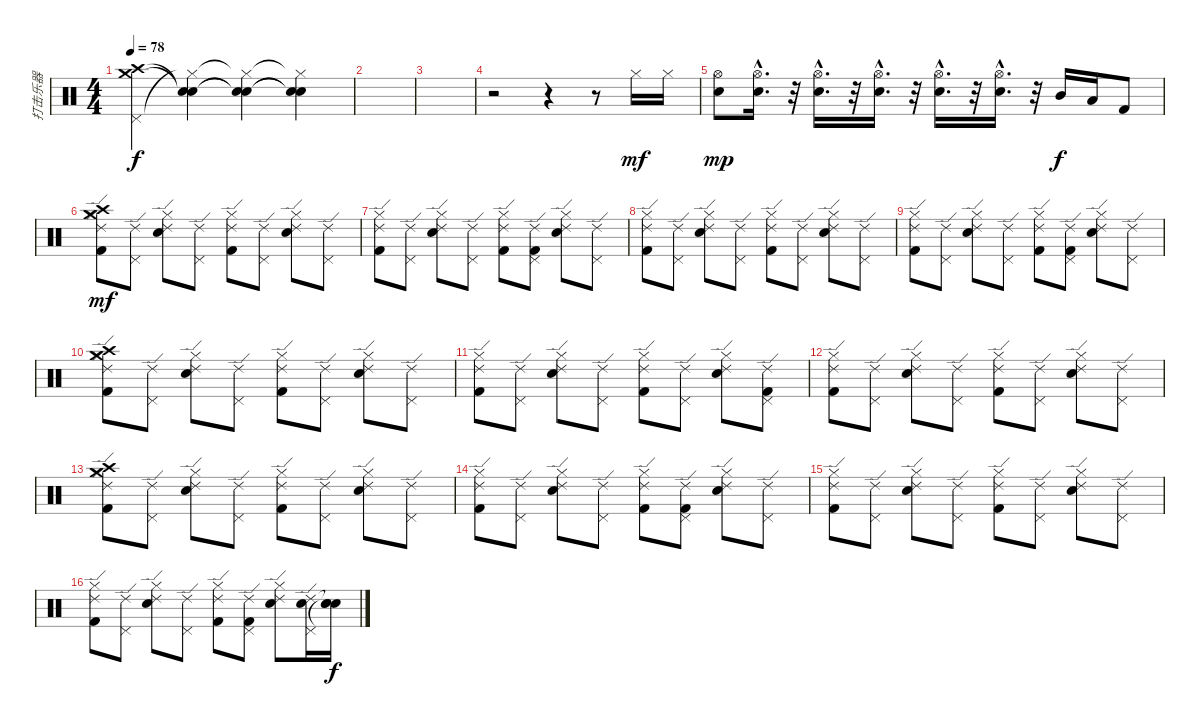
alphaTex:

\track ("打击乐器" "打击乐器") {instrument percussion}
\staff {score}
\articulation defaults
\ts (4 4)
\tempo 78
\clef neutral
\ks c
("Pedal Hi-Hat (hit)" "Crash high (hit)" "Crash medium (hit)").4{dy f} ("Hi-Hat (closed)"{t} "Snare (hit)"{t} "Snare (hit)"{t}).4 ("Hi-Hat (closed)"{t} "Snare (hit)"{t} "Snare (hit)"{t}).4 ("Hi-Hat (closed)"{t} "Snare (hit)"{t} "Snare (hit)"{t}).4 |
|
|
r.2 r.4 r.8 "Hi-Hat (closed)".16{dy mf} "Hi-Hat (closed)".16 |
("Electric Snare (hit)" "Hi-Hat (open)").8{dy mp} ("Electric Snare (hit)"{hac} "Hi-Hat (open)"{hac}).16{d} r.32 ("Electric Snare (hit)"{hac} "Hi-Hat (open)"{hac}).16{d} r.32 ("Electric Snare (hit)"{hac} "Hi-Hat (open)"{hac}).16{d} r.32 ("Electric Snare (hit)"{hac} "Hi-Hat (open)"{hac}).16{d} r.32 ("Electric Snare (hit)"{hac} "Hi-Hat (open)"{hac}).16{d} r.32 "Mid Tom (hit)".16{dy f} "Low Tom (hit)".16 "Kick (hit) 2".8 |
("Kick (hit) 2" "Hi-Hat (closed)" "Crash high (hit)" "Crash medium (hit)" "Ride (edge) 2").8{dy mf} ("Pedal Hi-Hat (hit)" "Ride (edge) 2").8 ("Electric Snare (hit)" "Hi-Hat (closed)" "Ride (edge) 2").8 ("Pedal Hi-Hat (hit)" "Ride (edge) 2").8 ("Kick (hit) 2" "Hi-Hat (closed)" "Ride (edge) 2").8 ("Pedal Hi-Hat (hit)" "Ride (edge) 2").8 ("Electric Snare (hit)" "Hi-Hat (closed)" "Ride (edge) 2").8 ("Pedal Hi-Hat (hit)" "Ride (edge) 2").8 |
("Kick (hit) 2" "Hi-Hat (closed)" "Ride (edge) 2").8 ("Pedal Hi-Hat (hit)" "Ride (edge) 2").8 ("Electric Snare (hit)" "Hi-Hat (closed)" "Ride (edge) 2").8 ("Pedal Hi-Hat (hit)" "Ride (edge) 2").8 ("Kick (hit) 2" "Hi-Hat (closed)" "Ride (edge) 2").8 ("Kick (hit) 2" "Pedal Hi-Hat (hit)" "Ride (edge) 2").8 ("Electric Snare (hit)" "Hi-Hat (closed)" "Ride (edge) 2").8 ("Pedal Hi-Hat (hit)" "Ride (edge) 2").8 |
("Kick (hit) 2" "Hi-Hat (closed)" "Ride (edge) 2").8 ("Pedal Hi-Hat (hit)" "Ride (edge) 2").8 ("Electric Snare (hit)" "Hi-Hat (closed)" "Ride (edge) 2").8 ("Pedal Hi-Hat (hit)" "Ride (edge) 2").8 ("Kick (hit) 2" "Hi-Hat (closed)" "Ride (edge) 2").8 ("Pedal Hi-Hat (hit)" "Ride (edge) 2").8 ("Electric Snare (hit)" "Hi-Hat (closed)" "Ride (edge) 2").8 ("Pedal Hi-Hat (hit)" "Ride (edge) 2").8 |
("Kick (hit) 2" "Hi-Hat (closed)" "Ride (edge) 2").8 ("Pedal Hi-Hat (hit)" "Ride (edge) 2").8 ("Electric Snare (hit)" "Hi-Hat (closed)" "Ride (edge) 2").8 ("Pedal Hi-Hat (hit)" "Ride (edge) 2").8 ("Kick (hit) 2" "Hi-Hat (closed)" "Ride (edge) 2").8 ("Kick (hit) 2" "Pedal Hi-Hat (hit)" "Ride (edge) 2").8 ("Electric Snare (hit)" "Hi-Hat (closed)" "Ride (edge) 2").8 ("Pedal Hi-Hat (hit)" "Ride (edge) 2").8 |
("Kick (hit) 2" "Hi-Hat (closed)" "Crash high (hit)" "Crash medium (hit)" "Ride (edge) 2").8 ("Pedal Hi-Hat (hit)" "Ride (edge) 2").8 ("Electric Snare (hit)" "Hi-Hat (closed)" "Ride (edge) 2").8 ("Pedal Hi-Hat (hit)" "Ride (edge) 2").8 ("Kick (hit) 2" "Hi-Hat (closed)" "Ride (edge) 2").8 ("Pedal Hi-Hat (hit)" "Ride (edge) 2").8 ("Electric Snare (hit)" "Hi-Hat (closed)" "Ride (edge) 2").8 ("Pedal Hi-Hat (hit)" "Ride (edge) 2").8 |
("Kick (hit) 2" "Hi-Hat (closed)" "Ride (edge) 2").8 ("Pedal Hi-Hat (hit)" "Ride (edge) 2").8 ("Electric Snare (hit)" "Hi-Hat (closed)" "Ride (edge) 2").8 ("Pedal Hi-Hat (hit)" "Ride (edge) 2").8 ("Kick (hit) 2" "Hi-Hat (closed)" "Ride (edge) 2").8 ("Pedal Hi-Hat (hit)" "Ride (edge) 2").8 ("Electric Snare (hit)" "Hi-Hat (closed)" "Ride (edge) 2").8 ("Kick (hit) 2" "Pedal Hi-Hat (hit)" "Ride (edge) 2").8 |
("Kick (hit) 2" "Hi-Hat (closed)" "Ride (edge) 2").8 ("Pedal Hi-Hat (hit)" "Ride (edge) 2").8 ("Electric Snare (hit)" "Hi-Hat (closed)" "Ride (edge) 2").8 ("Pedal Hi-Hat (hit)" "Ride (edge) 2").8 ("Kick (hit) 2" "Hi-Hat (closed)" "Ride (edge) 2").8 ("Pedal Hi-Hat (hit)" "Ride (edge) 2").8 ("Electric Snare (hit)" "Hi-Hat (closed)" "Ride (edge) 2").8 ("Pedal Hi-Hat (hit)" "Ride (edge) 2").8 |
("Kick (hit) 2" "Hi-Hat (closed)" "Crash high (hit)" "Crash medium (hit)" "Ride (edge) 2").8 ("Pedal Hi-Hat (hit)" "Ride (edge) 2").8 ("Electric Snare (hit)" "Hi-Hat (closed)" "Ride (edge) 2").8 ("Pedal Hi-Hat (hit)" "Ride (edge) 2").8 ("Kick (hit) 2" "Hi-Hat (closed)" "Ride (edge) 2").8 ("Pedal Hi-Hat (hit)" "Ride (edge) 2").8 ("Electric Snare (hit)" "Hi-Hat (closed)" "Ride (edge) 2").8 ("Pedal Hi-Hat (hit)" "Ride (edge) 2").8 |
("Kick (hit) 2" "Hi-Hat (closed)" "Ride (edge) 2").8 ("Pedal Hi-Hat (hit)" "Ride (edge) 2").8 ("Electric Snare (hit)" "Hi-Hat (closed)" "Ride (edge) 2").8 ("Pedal Hi-Hat (hit)" "Ride (edge) 2").8 ("Kick (hit) 2" "Hi-Hat (closed)" "Ride (edge) 2").8 ("Kick (hit) 2" "Pedal Hi-Hat (hit)" "Ride (edge) 2").8 ("Electric Snare (hit)" "Hi-Hat (closed)" "Ride (edge) 2").8 ("Pedal Hi-Hat (hit)" "Ride (edge) 2").8 |
("Kick (hit) 2" "Hi-Hat (closed)" "Ride (edge) 2").8 ("Pedal Hi-Hat (hit)" "Ride (edge) 2").8 ("Electric Snare (hit)" "Hi-Hat (closed)" "Ride (edge) 2").8 ("Pedal Hi-Hat (hit)" "Ride (edge) 2").8 ("Kick (hit) 2" "Hi-Hat (closed)" "Ride (edge) 2").8 ("Pedal Hi-Hat (hit)" "Ride (edge) 2").8 ("Electric Snare (hit)" "Hi-Hat (closed)" "Ride (edge) 2").8 ("Pedal Hi-Hat (hit)" "Ride (edge) 2").8 |
("Kick (hit) 2" "Hi-Hat (closed)" "Ride (edge) 2").8 ("Pedal Hi-Hat (hit)" "Ride (edge) 2").8 ("Electric Snare (hit)" "Hi-Hat (closed)" "Ride (edge) 2").8 ("Pedal Hi-Hat (hit)" "Ride (edge) 2").8 ("Kick (hit) 2" "Hi-Hat (closed)" "Ride (edge) 2").8 ("Kick (hit) 2" "Pedal Hi-Hat (hit)" "Ride (edge) 2").8 ("Electric Snare (hit)" "Hi-Hat (closed)" "Ride (edge) 2").8 ("Electric Snare (hit)" "Pedal Hi-Hat (hit)" "Ride (edge) 2").16 ("Electric Snare (hit)" "Snare (hit)"{t} "Snare (hit)"{t}).16{dy f}
